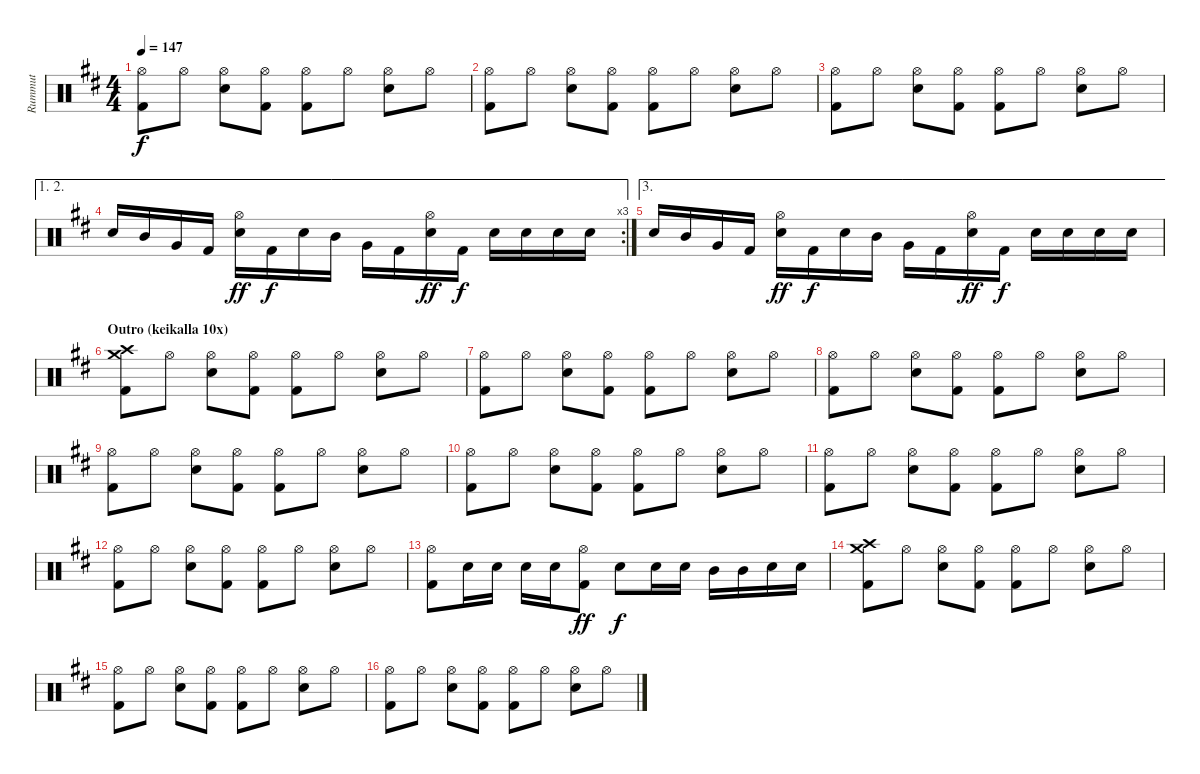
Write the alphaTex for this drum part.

\track ("Rummut" "Rummut") {instrument percussion}
\staff {score}
\articulation defaults
\ts (4 4)
\tempo 147
\clef neutral
\ks d
("Hi-Hat (open)" "Kick (hit) 2").8{dy f} "Hi-Hat (open)".8 ("Hi-Hat (open)" "Electric Snare (hit)").8 ("Hi-Hat (open)" "Kick (hit) 2").8 ("Hi-Hat (open)" "Kick (hit) 2").8 "Hi-Hat (open)".8 ("Hi-Hat (open)" "Electric Snare (hit)").8 "Hi-Hat (open)".8 |
("Hi-Hat (open)" "Kick (hit) 2").8 "Hi-Hat (open)".8 ("Hi-Hat (open)" "Electric Snare (hit)").8 ("Hi-Hat (open)" "Kick (hit) 2").8 ("Hi-Hat (open)" "Kick (hit) 2").8 "Hi-Hat (open)".8 ("Hi-Hat (open)" "Electric Snare (hit)").8 "Hi-Hat (open)".8 |
("Hi-Hat (open)" "Kick (hit) 2").8 "Hi-Hat (open)".8 ("Hi-Hat (open)" "Electric Snare (hit)").8 ("Hi-Hat (open)" "Kick (hit) 2").8 ("Hi-Hat (open)" "Kick (hit) 2").8 "Hi-Hat (open)".8 ("Hi-Hat (open)" "Electric Snare (hit)").8 "Hi-Hat (open)".8 |
\ae (1 2)
\rc 3 "Electric Snare (hit)".16 "Mid Tom (hit)".16 "Very Low Tom (hit)".16 "Kick (hit) 2".16
("Hi-Hat (open)" "Electric Snare (hit)").16{dy ff} "Kick (hit) 2".16{dy f} "Electric Snare (hit)".16 "Mid Tom (hit)".16 "Very Low Tom (hit)".16 "Kick (hit) 2".16 ("Hi-Hat (open)" "Electric Snare (hit)").16{dy ff} "Kick (hit) 2".16{dy f} "Electric Snare (hit)".16 "Electric Snare (hit)".16 "Electric Snare (hit)".16 "Electric Snare (hit)".16 |
\ae 3 "Electric Snare (hit)".16 "Mid Tom (hit)".16 "Very Low Tom (hit)".16 "Kick (hit) 2".16
("Hi-Hat (open)" "Electric Snare (hit)").16{dy ff} "Kick (hit) 2".16{dy f} "Electric Snare (hit)".16 "Mid Tom (hit)".16 "Very Low Tom (hit)".16 "Kick (hit) 2".16 ("Hi-Hat (open)" "Electric Snare (hit)").16{dy ff} "Kick (hit) 2".16{dy f} "Electric Snare (hit)".16 "Electric Snare (hit)".16 "Electric Snare (hit)".16 "Electric Snare (hit)".16 |
\section ("" "Outro (keikalla 10x)")
("Crash high (hit)" "Crash medium (hit)" "Kick (hit) 2").8 "Hi-Hat (open)".8 ("Hi-Hat (open)" "Electric Snare (hit)").8 ("Hi-Hat (open)" "Kick (hit) 2").8 ("Hi-Hat (open)" "Kick (hit) 2").8 "Hi-Hat (open)".8 ("Hi-Hat (open)" "Electric Snare (hit)").8 "Hi-Hat (open)".8 |
("Hi-Hat (open)" "Kick (hit) 2").8 "Hi-Hat (open)".8 ("Hi-Hat (open)" "Electric Snare (hit)").8 ("Hi-Hat (open)" "Kick (hit) 2").8 ("Hi-Hat (open)" "Kick (hit) 2").8 "Hi-Hat (open)".8 ("Hi-Hat (open)" "Electric Snare (hit)").8 "Hi-Hat (open)".8 |
("Hi-Hat (open)" "Kick (hit) 2").8 "Hi-Hat (open)".8 ("Hi-Hat (open)" "Electric Snare (hit)").8 ("Hi-Hat (open)" "Kick (hit) 2").8 ("Hi-Hat (open)" "Kick (hit) 2").8 "Hi-Hat (open)".8 ("Hi-Hat (open)" "Electric Snare (hit)").8 "Hi-Hat (open)".8 |
("Hi-Hat (open)" "Kick (hit) 2").8 "Hi-Hat (open)".8 ("Hi-Hat (open)" "Electric Snare (hit)").8 ("Hi-Hat (open)" "Kick (hit) 2").8 ("Hi-Hat (open)" "Kick (hit) 2").8 "Hi-Hat (open)".8 ("Hi-Hat (open)" "Electric Snare (hit)").8 "Hi-Hat (open)".8 |
("Hi-Hat (open)" "Kick (hit) 2").8 "Hi-Hat (open)".8 ("Hi-Hat (open)" "Electric Snare (hit)").8 ("Hi-Hat (open)" "Kick (hit) 2").8 ("Hi-Hat (open)" "Kick (hit) 2").8 "Hi-Hat (open)".8 ("Hi-Hat (open)" "Electric Snare (hit)").8 "Hi-Hat (open)".8 |
("Hi-Hat (open)" "Kick (hit) 2").8 "Hi-Hat (open)".8 ("Hi-Hat (open)" "Electric Snare (hit)").8 ("Hi-Hat (open)" "Kick (hit) 2").8 ("Hi-Hat (open)" "Kick (hit) 2").8 "Hi-Hat (open)".8 ("Hi-Hat (open)" "Electric Snare (hit)").8 "Hi-Hat (open)".8 |
("Hi-Hat (open)" "Kick (hit) 2").8 "Hi-Hat (open)".8 ("Hi-Hat (open)" "Electric Snare (hit)").8 ("Hi-Hat (open)" "Kick (hit) 2").8 ("Hi-Hat (open)" "Kick (hit) 2").8 "Hi-Hat (open)".8 ("Hi-Hat (open)" "Electric Snare (hit)").8 "Hi-Hat (open)".8 |
("Hi-Hat (open)" "Kick (hit) 2").8 "Electric Snare (hit)".16 "Electric Snare (hit)".16 "Electric Snare (hit)".16 "Electric Snare (hit)".16 ("Hi-Hat (open)" "Kick (hit) 2").8{dy ff} "Electric Snare (hit)".8{dy f} "Electric Snare (hit)".16 "Electric Snare (hit)".16 "Mid Tom (hit)".16 "Mid Tom (hit)".16 "Electric Snare (hit)".16 "Electric Snare (hit)".16 |
("Crash high (hit)" "Crash medium (hit)" "Kick (hit) 2").8 "Hi-Hat (open)".8 ("Hi-Hat (open)" "Electric Snare (hit)").8 ("Hi-Hat (open)" "Kick (hit) 2").8 ("Hi-Hat (open)" "Kick (hit) 2").8 "Hi-Hat (open)".8 ("Hi-Hat (open)" "Electric Snare (hit)").8 "Hi-Hat (open)".8 |
("Hi-Hat (open)" "Kick (hit) 2").8 "Hi-Hat (open)".8 ("Hi-Hat (open)" "Electric Snare (hit)").8 ("Hi-Hat (open)" "Kick (hit) 2").8 ("Hi-Hat (open)" "Kick (hit) 2").8 "Hi-Hat (open)".8 ("Hi-Hat (open)" "Electric Snare (hit)").8 "Hi-Hat (open)".8 |
("Hi-Hat (open)" "Kick (hit) 2").8 "Hi-Hat (open)".8 ("Hi-Hat (open)" "Electric Snare (hit)").8 ("Hi-Hat (open)" "Kick (hit) 2").8 ("Hi-Hat (open)" "Kick (hit) 2").8 "Hi-Hat (open)".8 ("Hi-Hat (open)" "Electric Snare (hit)").8 "Hi-Hat (open)".8
